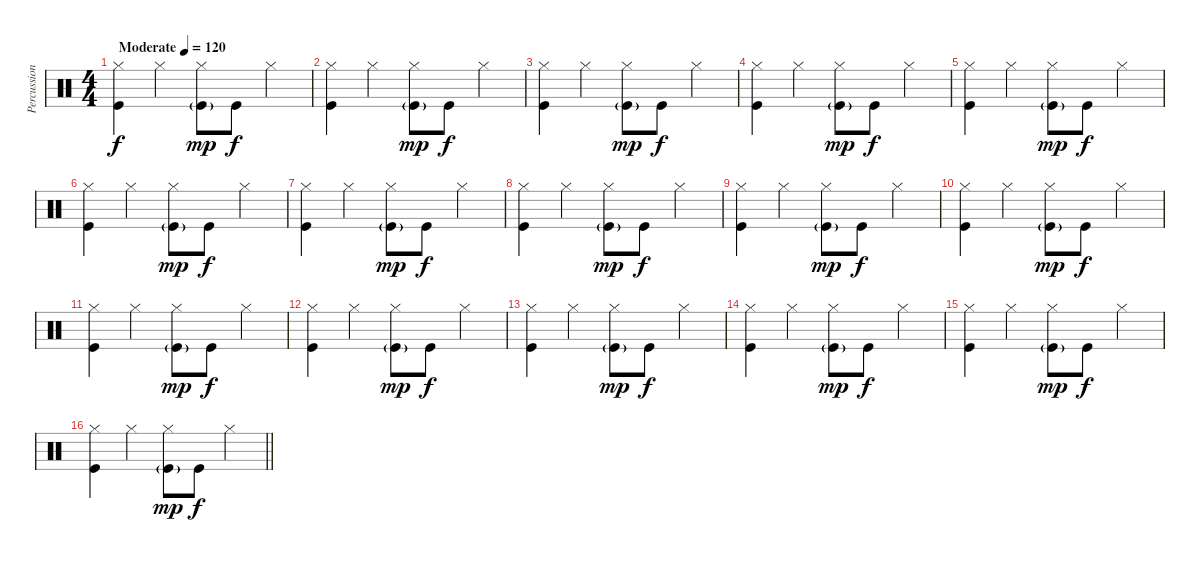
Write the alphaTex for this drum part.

\track ("Percussion" "Percussion") {instrument percussion}
\staff {score}
\articulation defaults
\ts (4 4)
\tempo (120 "Moderate")
\clef neutral
\ks c
("Hi-Hat (closed)" "Kick (hit)").4{dy f} "Hi-Hat (closed)".4 ("Hi-Hat (closed)" "Kick (hit)"{g}).8{dy mp} "Kick (hit)".8{dy f} "Hi-Hat (closed)".4 |
("Hi-Hat (closed)" "Kick (hit)").4 "Hi-Hat (closed)".4 ("Hi-Hat (closed)" "Kick (hit)"{g}).8{dy mp} "Kick (hit)".8{dy f} "Hi-Hat (closed)".4 |
("Hi-Hat (closed)" "Kick (hit)").4 "Hi-Hat (closed)".4 ("Hi-Hat (closed)" "Kick (hit)"{g}).8{dy mp} "Kick (hit)".8{dy f} "Hi-Hat (closed)".4 |
("Hi-Hat (closed)" "Kick (hit)").4 "Hi-Hat (closed)".4 ("Hi-Hat (closed)" "Kick (hit)"{g}).8{dy mp} "Kick (hit)".8{dy f} "Hi-Hat (closed)".4 |
("Hi-Hat (closed)" "Kick (hit)").4 "Hi-Hat (closed)".4 ("Hi-Hat (closed)" "Kick (hit)"{g}).8{dy mp} "Kick (hit)".8{dy f} "Hi-Hat (closed)".4 |
("Hi-Hat (closed)" "Kick (hit)").4 "Hi-Hat (closed)".4 ("Hi-Hat (closed)" "Kick (hit)"{g}).8{dy mp} "Kick (hit)".8{dy f} "Hi-Hat (closed)".4 |
("Hi-Hat (closed)" "Kick (hit)").4 "Hi-Hat (closed)".4 ("Hi-Hat (closed)" "Kick (hit)"{g}).8{dy mp} "Kick (hit)".8{dy f} "Hi-Hat (closed)".4 |
("Hi-Hat (closed)" "Kick (hit)").4 "Hi-Hat (closed)".4 ("Hi-Hat (closed)" "Kick (hit)"{g}).8{dy mp} "Kick (hit)".8{dy f} "Hi-Hat (closed)".4 |
("Hi-Hat (closed)" "Kick (hit)").4 "Hi-Hat (closed)".4 ("Hi-Hat (closed)" "Kick (hit)"{g}).8{dy mp} "Kick (hit)".8{dy f} "Hi-Hat (closed)".4 |
("Hi-Hat (closed)" "Kick (hit)").4 "Hi-Hat (closed)".4 ("Hi-Hat (closed)" "Kick (hit)"{g}).8{dy mp} "Kick (hit)".8{dy f} "Hi-Hat (closed)".4 |
("Hi-Hat (closed)" "Kick (hit)").4 "Hi-Hat (closed)".4 ("Hi-Hat (closed)" "Kick (hit)"{g}).8{dy mp} "Kick (hit)".8{dy f} "Hi-Hat (closed)".4 |
("Hi-Hat (closed)" "Kick (hit)").4 "Hi-Hat (closed)".4 ("Hi-Hat (closed)" "Kick (hit)"{g}).8{dy mp} "Kick (hit)".8{dy f} "Hi-Hat (closed)".4 |
("Hi-Hat (closed)" "Kick (hit)").4 "Hi-Hat (closed)".4 ("Hi-Hat (closed)" "Kick (hit)"{g}).8{dy mp} "Kick (hit)".8{dy f} "Hi-Hat (closed)".4 |
("Hi-Hat (closed)" "Kick (hit)").4 "Hi-Hat (closed)".4 ("Hi-Hat (closed)" "Kick (hit)"{g}).8{dy mp} "Kick (hit)".8{dy f} "Hi-Hat (closed)".4 |
("Hi-Hat (closed)" "Kick (hit)").4 "Hi-Hat (closed)".4 ("Hi-Hat (closed)" "Kick (hit)"{g}).8{dy mp} "Kick (hit)".8{dy f} "Hi-Hat (closed)".4 |
\barLineRight lightlight
("Hi-Hat (closed)" "Kick (hit)").4 "Hi-Hat (closed)".4 ("Hi-Hat (closed)" "Kick (hit)"{g}).8{dy mp} "Kick (hit)".8{dy f} "Hi-Hat (closed)".4
